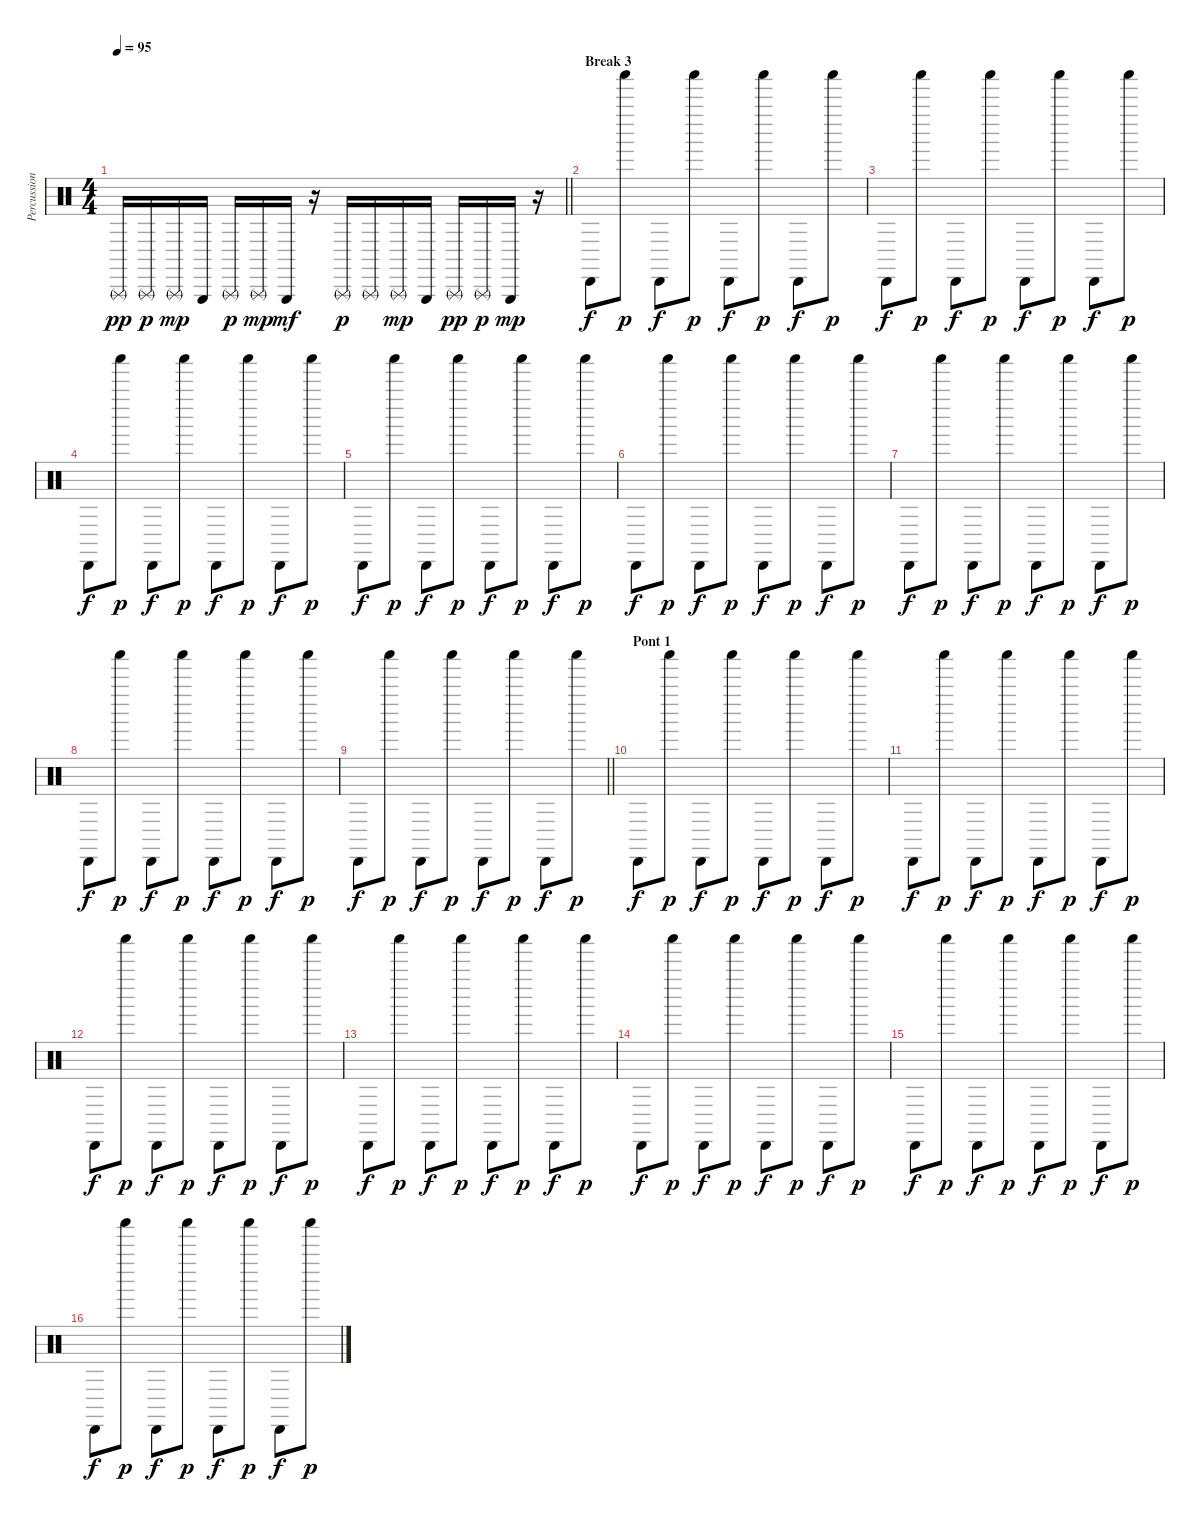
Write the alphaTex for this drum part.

\track ("Percussions" "Percussion") {instrument percussion}
\staff {score}
\articulation defaults
\ts (4 4)
\tempo 95
\clef neutral
\barLineRight lightlight
\ks c "Triangle (rnute)".16{dy pp} "Triangle (rnute)".16{dy p} "Triangle (rnute)".16{dy mp} "Triangle (hit)".16 "Triangle (rnute)".16{dy p} "Triangle (rnute)".16{dy mp} "Triangle (hit)".16{dy mf}
r.16 "Triangle (rnute)".16{dy p} "Triangle (rnute)".16 "Triangle (rnute)".16{dy mp} "Triangle (hit)".16 "Triangle (rnute)".16{dy pp} "Triangle (rnute)".16{dy p} "Triangle (hit)".16{dy mp} r.16 |
\section ("" "Break 3")
"Cabasa (hit)".8{dy f} "Shaker (hit)".8{dy p} "Cabasa (hit)".8{dy f} "Shaker (hit)".8{dy p} "Cabasa (hit)".8{dy f} "Shaker (hit)".8{dy p} "Cabasa (hit)".8{dy f} "Shaker (hit)".8{dy p} |
"Cabasa (hit)".8{dy f} "Shaker (hit)".8{dy p} "Cabasa (hit)".8{dy f} "Shaker (hit)".8{dy p} "Cabasa (hit)".8{dy f} "Shaker (hit)".8{dy p} "Cabasa (hit)".8{dy f} "Shaker (hit)".8{dy p} |
"Cabasa (hit)".8{dy f} "Shaker (hit)".8{dy p} "Cabasa (hit)".8{dy f} "Shaker (hit)".8{dy p} "Cabasa (hit)".8{dy f} "Shaker (hit)".8{dy p} "Cabasa (hit)".8{dy f} "Shaker (hit)".8{dy p} |
"Cabasa (hit)".8{dy f} "Shaker (hit)".8{dy p} "Cabasa (hit)".8{dy f} "Shaker (hit)".8{dy p} "Cabasa (hit)".8{dy f} "Shaker (hit)".8{dy p} "Cabasa (hit)".8{dy f} "Shaker (hit)".8{dy p} |
"Cabasa (hit)".8{dy f} "Shaker (hit)".8{dy p} "Cabasa (hit)".8{dy f} "Shaker (hit)".8{dy p} "Cabasa (hit)".8{dy f} "Shaker (hit)".8{dy p} "Cabasa (hit)".8{dy f} "Shaker (hit)".8{dy p} |
"Cabasa (hit)".8{dy f} "Shaker (hit)".8{dy p} "Cabasa (hit)".8{dy f} "Shaker (hit)".8{dy p} "Cabasa (hit)".8{dy f} "Shaker (hit)".8{dy p} "Cabasa (hit)".8{dy f} "Shaker (hit)".8{dy p} |
"Cabasa (hit)".8{dy f} "Shaker (hit)".8{dy p} "Cabasa (hit)".8{dy f} "Shaker (hit)".8{dy p} "Cabasa (hit)".8{dy f} "Shaker (hit)".8{dy p} "Cabasa (hit)".8{dy f} "Shaker (hit)".8{dy p} |
\barLineRight lightlight "Cabasa (hit)".8{dy f} "Shaker (hit)".8{dy p} "Cabasa (hit)".8{dy f} "Shaker (hit)".8{dy p} "Cabasa (hit)".8{dy f} "Shaker (hit)".8{dy p} "Cabasa (hit)".8{dy f} "Shaker (hit)".8{dy p}
|
\section ("" "Pont 1")
"Cabasa (hit)".8{dy f} "Shaker (hit)".8{dy p} "Cabasa (hit)".8{dy f} "Shaker (hit)".8{dy p} "Cabasa (hit)".8{dy f} "Shaker (hit)".8{dy p} "Cabasa (hit)".8{dy f} "Shaker (hit)".8{dy p} |
"Cabasa (hit)".8{dy f} "Shaker (hit)".8{dy p} "Cabasa (hit)".8{dy f} "Shaker (hit)".8{dy p} "Cabasa (hit)".8{dy f} "Shaker (hit)".8{dy p} "Cabasa (hit)".8{dy f} "Shaker (hit)".8{dy p} |
"Cabasa (hit)".8{dy f} "Shaker (hit)".8{dy p} "Cabasa (hit)".8{dy f} "Shaker (hit)".8{dy p} "Cabasa (hit)".8{dy f} "Shaker (hit)".8{dy p} "Cabasa (hit)".8{dy f} "Shaker (hit)".8{dy p} |
"Cabasa (hit)".8{dy f} "Shaker (hit)".8{dy p} "Cabasa (hit)".8{dy f} "Shaker (hit)".8{dy p} "Cabasa (hit)".8{dy f} "Shaker (hit)".8{dy p} "Cabasa (hit)".8{dy f} "Shaker (hit)".8{dy p} |
"Cabasa (hit)".8{dy f} "Shaker (hit)".8{dy p} "Cabasa (hit)".8{dy f} "Shaker (hit)".8{dy p} "Cabasa (hit)".8{dy f} "Shaker (hit)".8{dy p} "Cabasa (hit)".8{dy f} "Shaker (hit)".8{dy p} |
"Cabasa (hit)".8{dy f} "Shaker (hit)".8{dy p} "Cabasa (hit)".8{dy f} "Shaker (hit)".8{dy p} "Cabasa (hit)".8{dy f} "Shaker (hit)".8{dy p} "Cabasa (hit)".8{dy f} "Shaker (hit)".8{dy p} |
"Cabasa (hit)".8{dy f} "Shaker (hit)".8{dy p} "Cabasa (hit)".8{dy f} "Shaker (hit)".8{dy p} "Cabasa (hit)".8{dy f} "Shaker (hit)".8{dy p} "Cabasa (hit)".8{dy f} "Shaker (hit)".8{dy p}
